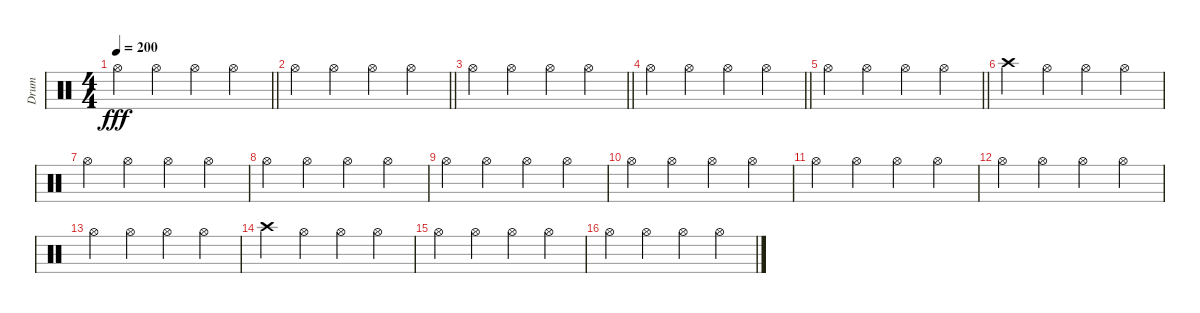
\track ("Drum" "Drum") {instrument percussion}
\staff {score}
\articulation defaults
\ts (4 4)
\tempo 200
\clef neutral
\barLineRight lightlight
\ks c "Hi-Hat (open)".4{dy fff} "Hi-Hat (open)".4 "Hi-Hat (open)".4 "Hi-Hat (open)".4
|
\barLineRight lightlight "Hi-Hat (open)".4 "Hi-Hat (open)".4 "Hi-Hat (open)".4 "Hi-Hat (open)".4
|
\barLineRight lightlight "Hi-Hat (open)".4 "Hi-Hat (open)".4 "Hi-Hat (open)".4 "Hi-Hat (open)".4
|
\barLineRight lightlight "Hi-Hat (open)".4 "Hi-Hat (open)".4 "Hi-Hat (open)".4 "Hi-Hat (open)".4
|
\barLineRight lightlight "Hi-Hat (open)".4 "Hi-Hat (open)".4 "Hi-Hat (open)".4 "Hi-Hat (open)".4
|
"Crash high (hit)".4 "Hi-Hat (open)".4 "Hi-Hat (open)".4 "Hi-Hat (open)".4 |
"Hi-Hat (open)".4 "Hi-Hat (open)".4 "Hi-Hat (open)".4 "Hi-Hat (open)".4 |
"Hi-Hat (open)".4 "Hi-Hat (open)".4 "Hi-Hat (open)".4 "Hi-Hat (open)".4 |
"Hi-Hat (open)".4 "Hi-Hat (open)".4 "Hi-Hat (open)".4 "Hi-Hat (open)".4 |
"Hi-Hat (open)".4 "Hi-Hat (open)".4 "Hi-Hat (open)".4 "Hi-Hat (open)".4 |
"Hi-Hat (open)".4 "Hi-Hat (open)".4 "Hi-Hat (open)".4 "Hi-Hat (open)".4 |
"Hi-Hat (open)".4 "Hi-Hat (open)".4 "Hi-Hat (open)".4 "Hi-Hat (open)".4 |
"Hi-Hat (open)".4 "Hi-Hat (open)".4 "Hi-Hat (open)".4 "Hi-Hat (open)".4 |
"Crash high (hit)".4 "Hi-Hat (open)".4 "Hi-Hat (open)".4 "Hi-Hat (open)".4 |
"Hi-Hat (open)".4 "Hi-Hat (open)".4 "Hi-Hat (open)".4 "Hi-Hat (open)".4 |
"Hi-Hat (open)".4 "Hi-Hat (open)".4 "Hi-Hat (open)".4 "Hi-Hat (open)".4
